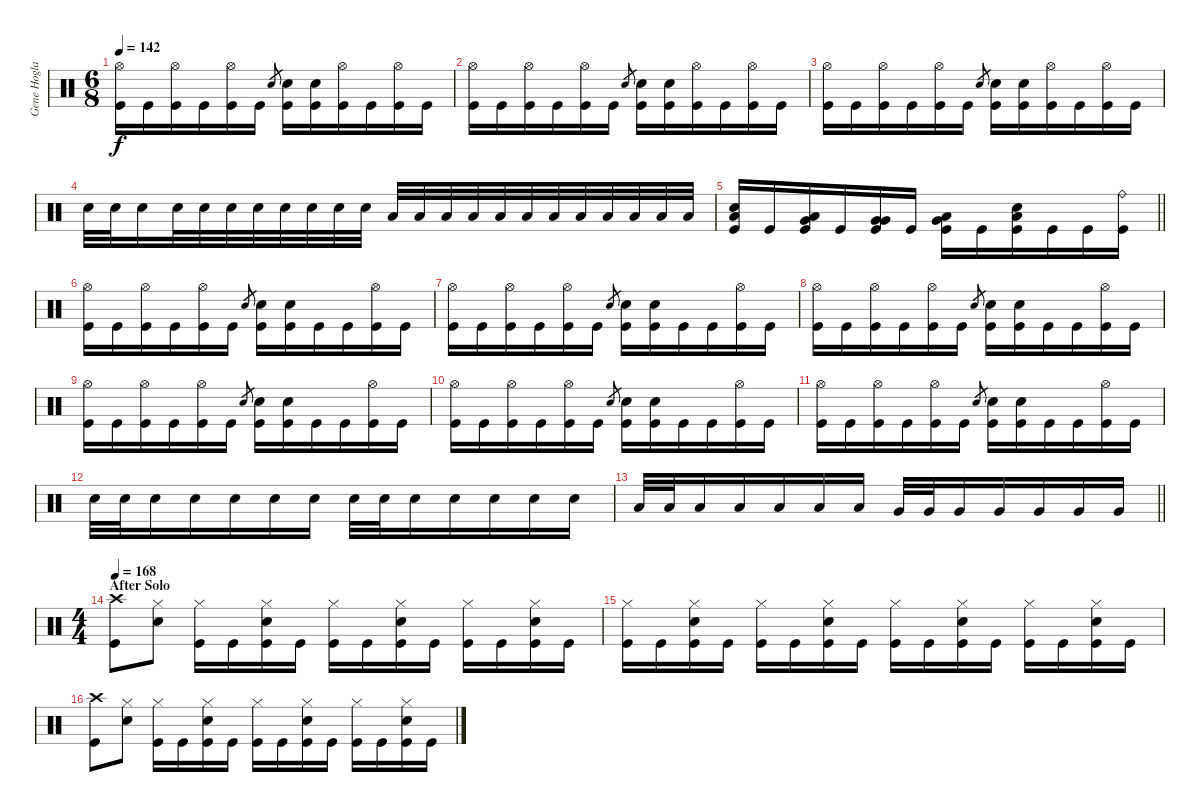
\track ("Gene Hoglan" "Gene Hogla") {instrument percussion}
\staff {score}
\articulation defaults
\ts (6 8)
\tempo 142
\clef neutral
\ks c
("Hi-Hat (open)" "Kick (hit)").16{dy f} "Kick (hit)".16 ("Hi-Hat (open)" "Kick (hit)").16 "Kick (hit)".16 ("Hi-Hat (open)" "Kick (hit)").16 "Kick (hit)".16 "Snare (hit) 2".8{gr} ("Snare (hit) 2" "Kick (hit)").16 ("Snare (hit) 2" "Kick (hit)").16 ("Hi-Hat (open)" "Kick (hit)").16 "Kick (hit)".16 ("Hi-Hat (open)" "Kick (hit)").16 "Kick (hit)".16 |
("Hi-Hat (open)" "Kick (hit)").16 "Kick (hit)".16 ("Hi-Hat (open)" "Kick (hit)").16 "Kick (hit)".16 ("Hi-Hat (open)" "Kick (hit)").16 "Kick (hit)".16 "Snare (hit) 2".8{gr} ("Snare (hit) 2" "Kick (hit)").16 ("Snare (hit) 2" "Kick (hit)").16 ("Hi-Hat (open)" "Kick (hit)").16 "Kick (hit)".16 ("Hi-Hat (open)" "Kick (hit)").16 "Kick (hit)".16 |
("Hi-Hat (open)" "Kick (hit)").16 "Kick (hit)".16 ("Hi-Hat (open)" "Kick (hit)").16 "Kick (hit)".16 ("Hi-Hat (open)" "Kick (hit)").16 "Kick (hit)".16 "Snare (hit) 2".8{gr} ("Snare (hit) 2" "Kick (hit)").16 ("Snare (hit) 2" "Kick (hit)").16 ("Hi-Hat (open)" "Kick (hit)").16 "Kick (hit)".16 ("Hi-Hat (open)" "Kick (hit)").16 "Kick (hit)".16 |
"Snare (hit) 2".32 "Snare (hit) 2".32 "Snare (hit) 2".16 "Snare (hit) 2".32 "Snare (hit) 2".32 "Snare (hit) 2".32 "Snare (hit) 2".32 "Snare (hit) 2".32 "Snare (hit) 2".32 "Snare (hit) 2".32 "Snare (hit) 2".32 "Low Tom (hit)".32 "Low Tom (hit)".32 "Low Tom (hit)".32 "Low Tom (hit)".32 "Low Tom (hit)".32 "Low Tom (hit)".32 "Low Tom (hit)".32 "Low Tom (hit)".32 "Low Tom (hit)".32 "Low Tom (hit)".32 "Low Tom (hit)".32 "Low Tom (hit)".32 |
\barLineRight lightlight
("Low Tom (hit)" "Snare (hit) 2" "Kick (hit)").16 "Kick (hit)".16 ("Very Low Tom (hit)" "Low Tom (hit)" "Kick (hit)").16 "Kick (hit)".16 ("Very Low Tom (hit)" "Very Low Tom (hit)" "Kick (hit)").16 "Kick (hit)".16 ("Very Low Tom (hit)" "Low Floor Tom (hit)" "Kick (hit)").16 "Kick (hit)".16 ("Snare (hit) 2" "Low Floor Tom (hit)" "Kick (hit)").16 "Kick (hit)".16 "Kick (hit)".16 ("Ride (bell)" "Kick (hit)").16 |
("Hi-Hat (open)" "Kick (hit)").16 "Kick (hit)".16 ("Hi-Hat (open)" "Kick (hit)").16 "Kick (hit)".16 ("Hi-Hat (open)" "Kick (hit)").16 "Kick (hit)".16 "Snare (hit) 2".8{gr} ("Snare (hit) 2" "Kick (hit)").16 ("Snare (hit) 2" "Kick (hit)").16 "Kick (hit)".16 "Kick (hit)".16 ("Hi-Hat (open)" "Kick (hit)").16 "Kick (hit)".16 |
("Hi-Hat (open)" "Kick (hit)").16 "Kick (hit)".16 ("Hi-Hat (open)" "Kick (hit)").16 "Kick (hit)".16 ("Hi-Hat (open)" "Kick (hit)").16 "Kick (hit)".16 "Snare (hit) 2".8{gr} ("Snare (hit) 2" "Kick (hit)").16 ("Snare (hit) 2" "Kick (hit)").16 "Kick (hit)".16 "Kick (hit)".16 ("Hi-Hat (open)" "Kick (hit)").16 "Kick (hit)".16 |
("Hi-Hat (open)" "Kick (hit)").16 "Kick (hit)".16 ("Hi-Hat (open)" "Kick (hit)").16 "Kick (hit)".16 ("Hi-Hat (open)" "Kick (hit)").16 "Kick (hit)".16 "Snare (hit) 2".8{gr} ("Snare (hit) 2" "Kick (hit)").16 ("Snare (hit) 2" "Kick (hit)").16 "Kick (hit)".16 "Kick (hit)".16 ("Hi-Hat (open)" "Kick (hit)").16 "Kick (hit)".16 |
("Hi-Hat (open)" "Kick (hit)").16 "Kick (hit)".16 ("Hi-Hat (open)" "Kick (hit)").16 "Kick (hit)".16 ("Hi-Hat (open)" "Kick (hit)").16 "Kick (hit)".16 "Snare (hit) 2".8{gr} ("Snare (hit) 2" "Kick (hit)").16 ("Snare (hit) 2" "Kick (hit)").16 "Kick (hit)".16 "Kick (hit)".16 ("Hi-Hat (open)" "Kick (hit)").16 "Kick (hit)".16 |
("Hi-Hat (open)" "Kick (hit)").16 "Kick (hit)".16 ("Hi-Hat (open)" "Kick (hit)").16 "Kick (hit)".16 ("Hi-Hat (open)" "Kick (hit)").16 "Kick (hit)".16 "Snare (hit) 2".8{gr} ("Snare (hit) 2" "Kick (hit)").16 ("Snare (hit) 2" "Kick (hit)").16 "Kick (hit)".16 "Kick (hit)".16 ("Hi-Hat (open)" "Kick (hit)").16 "Kick (hit)".16 |
("Hi-Hat (open)" "Kick (hit)").16 "Kick (hit)".16 ("Hi-Hat (open)" "Kick (hit)").16 "Kick (hit)".16 ("Hi-Hat (open)" "Kick (hit)").16 "Kick (hit)".16 "Snare (hit) 2".8{gr} ("Snare (hit) 2" "Kick (hit)").16 ("Snare (hit) 2" "Kick (hit)").16 "Kick (hit)".16 "Kick (hit)".16 ("Hi-Hat (open)" "Kick (hit)").16 "Kick (hit)".16 |
"Snare (hit) 2".32 "Snare (hit) 2".32 "Snare (hit) 2".16 "Snare (hit) 2".16 "Snare (hit) 2".16 "Snare (hit) 2".16 "Snare (hit) 2".16 "Snare (hit) 2".32 "Snare (hit) 2".32 "Snare (hit) 2".16 "Snare (hit) 2".16 "Snare (hit) 2".16 "Snare (hit) 2".16 "Snare (hit) 2".16 |
\barLineRight lightlight "Low Tom (hit)".32 "Low Tom (hit)".32 "Low Tom (hit)".16 "Low Tom (hit)".16 "Low Tom (hit)".16 "Low Tom (hit)".16 "Low Tom (hit)".16 "Very Low Tom (hit)".32 "Very Low Tom (hit)".32 "Very Low Tom (hit)".16 "Very Low Tom (hit)".16 "Very Low Tom (hit)".16 "Very Low Tom (hit)".16 "Very Low Tom (hit)".16
|
\ts (4 4)
\section ("" "After Solo")
\tempo 168
("Crash high (hit)" "Kick (hit)").8 ("Hi-Hat (closed)" "Snare (hit) 2").8 ("Hi-Hat (closed)" "Kick (hit)").16 "Kick (hit)".16 ("Snare (hit) 2" "Hi-Hat (closed)" "Kick (hit)").16 "Kick (hit)".16 ("Hi-Hat (closed)" "Kick (hit)").16 "Kick (hit)".16 ("Snare (hit) 2" "Hi-Hat (closed)" "Kick (hit)").16 "Kick (hit)".16 ("Hi-Hat (closed)" "Kick (hit)").16 "Kick (hit)".16 ("Snare (hit) 2" "Hi-Hat (closed)" "Kick (hit)").16 "Kick (hit)".16 |
("Hi-Hat (closed)" "Kick (hit)").16 "Kick (hit)".16 ("Snare (hit) 2" "Hi-Hat (closed)" "Kick (hit)").16 "Kick (hit)".16 ("Hi-Hat (closed)" "Kick (hit)").16 "Kick (hit)".16 ("Snare (hit) 2" "Hi-Hat (closed)" "Kick (hit)").16 "Kick (hit)".16 ("Hi-Hat (closed)" "Kick (hit)").16 "Kick (hit)".16 ("Snare (hit) 2" "Hi-Hat (closed)" "Kick (hit)").16 "Kick (hit)".16 ("Hi-Hat (closed)" "Kick (hit)").16 "Kick (hit)".16 ("Snare (hit) 2" "Hi-Hat (closed)" "Kick (hit)").16 "Kick (hit)".16 |
("Crash high (hit)" "Kick (hit)").8 ("Hi-Hat (closed)" "Snare (hit) 2").8 ("Hi-Hat (closed)" "Kick (hit)").16 "Kick (hit)".16 ("Snare (hit) 2" "Hi-Hat (closed)" "Kick (hit)").16 "Kick (hit)".16 ("Hi-Hat (closed)" "Kick (hit)").16 "Kick (hit)".16 ("Snare (hit) 2" "Hi-Hat (closed)" "Kick (hit)").16 "Kick (hit)".16 ("Hi-Hat (closed)" "Kick (hit)").16 "Kick (hit)".16 ("Snare (hit) 2" "Hi-Hat (closed)" "Kick (hit)").16 "Kick (hit)".16
